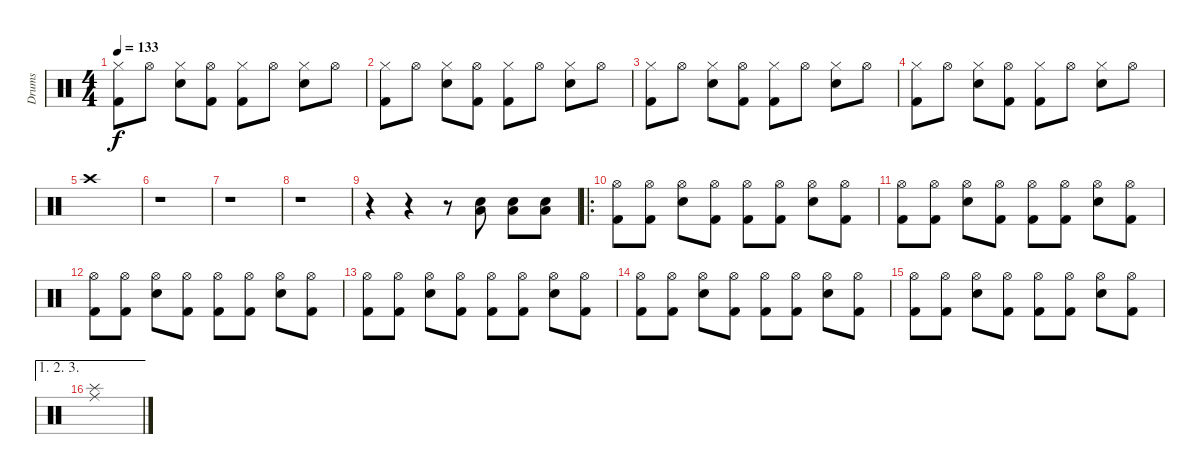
\track ("Drums" "Drums") {instrument percussion bank 4}
\staff {score}
\articulation defaults
\ts (4 4)
\tempo 133
\clef neutral
\ks c
("Hi-Hat (closed)" "Kick (hit) 2").8{dy f} "Hi-Hat (open)".8 ("Hi-Hat (closed)" "Snare (hit) 2").8 ("Hi-Hat (open)" "Kick (hit) 2").8 ("Hi-Hat (closed)" "Kick (hit) 2").8 "Hi-Hat (open)".8 ("Hi-Hat (closed)" "Snare (hit) 2").8 "Hi-Hat (open)".8 |
("Hi-Hat (closed)" "Kick (hit) 2").8 "Hi-Hat (open)".8 ("Hi-Hat (closed)" "Snare (hit) 2").8 ("Hi-Hat (open)" "Kick (hit) 2").8 ("Hi-Hat (closed)" "Kick (hit) 2").8 "Hi-Hat (open)".8 ("Hi-Hat (closed)" "Snare (hit) 2").8 "Hi-Hat (open)".8 |
("Hi-Hat (closed)" "Kick (hit) 2").8 "Hi-Hat (open)".8 ("Hi-Hat (closed)" "Snare (hit) 2").8 ("Hi-Hat (open)" "Kick (hit) 2").8 ("Hi-Hat (closed)" "Kick (hit) 2").8 "Hi-Hat (open)".8 ("Hi-Hat (closed)" "Snare (hit) 2").8 "Hi-Hat (open)".8 |
("Hi-Hat (closed)" "Kick (hit) 2").8 "Hi-Hat (open)".8 ("Hi-Hat (closed)" "Snare (hit) 2").8 ("Hi-Hat (open)" "Kick (hit) 2").8 ("Hi-Hat (closed)" "Kick (hit) 2").8 "Hi-Hat (open)".8 ("Hi-Hat (closed)" "Snare (hit) 2").8 "Hi-Hat (open)".8 |
"Crash high (hit)".1 |
r.1 |
r.1 |
r.1 |
r.4 r.4 r.8 ("Snare (hit) 2" "Low Floor Tom (hit)").8 ("Snare (hit) 2" "Low Floor Tom (hit)").8 ("Snare (hit) 2" "Low Floor Tom (hit)").8 |
\ro
("Hi-Hat (open)" "Kick (hit) 2").8 ("Hi-Hat (open)" "Kick (hit) 2").8 ("Hi-Hat (open)" "Snare (hit) 2").8 ("Hi-Hat (open)" "Kick (hit) 2").8 ("Hi-Hat (open)" "Kick (hit) 2").8 ("Hi-Hat (open)" "Kick (hit) 2").8 ("Hi-Hat (open)" "Snare (hit) 2").8 ("Hi-Hat (open)" "Kick (hit) 2").8 |
("Hi-Hat (open)" "Kick (hit) 2").8 ("Hi-Hat (open)" "Kick (hit) 2").8 ("Hi-Hat (open)" "Snare (hit) 2").8 ("Hi-Hat (open)" "Kick (hit) 2").8 ("Hi-Hat (open)" "Kick (hit) 2").8 ("Hi-Hat (open)" "Kick (hit) 2").8 ("Hi-Hat (open)" "Snare (hit) 2").8 ("Hi-Hat (open)" "Kick (hit) 2").8 |
("Hi-Hat (open)" "Kick (hit) 2").8 ("Hi-Hat (open)" "Kick (hit) 2").8 ("Hi-Hat (open)" "Snare (hit) 2").8 ("Hi-Hat (open)" "Kick (hit) 2").8 ("Hi-Hat (open)" "Kick (hit) 2").8 ("Hi-Hat (open)" "Kick (hit) 2").8 ("Hi-Hat (open)" "Snare (hit) 2").8 ("Hi-Hat (open)" "Kick (hit) 2").8 |
("Hi-Hat (open)" "Kick (hit) 2").8 ("Hi-Hat (open)" "Kick (hit) 2").8 ("Hi-Hat (open)" "Snare (hit) 2").8 ("Hi-Hat (open)" "Kick (hit) 2").8 ("Hi-Hat (open)" "Kick (hit) 2").8 ("Hi-Hat (open)" "Kick (hit) 2").8 ("Hi-Hat (open)" "Snare (hit) 2").8 ("Hi-Hat (open)" "Kick (hit) 2").8 |
("Hi-Hat (open)" "Kick (hit) 2").8 ("Hi-Hat (open)" "Kick (hit) 2").8 ("Hi-Hat (open)" "Snare (hit) 2").8 ("Hi-Hat (open)" "Kick (hit) 2").8 ("Hi-Hat (open)" "Kick (hit) 2").8 ("Hi-Hat (open)" "Kick (hit) 2").8 ("Hi-Hat (open)" "Snare (hit) 2").8 ("Hi-Hat (open)" "Kick (hit) 2").8 |
("Hi-Hat (open)" "Kick (hit) 2").8 ("Hi-Hat (open)" "Kick (hit) 2").8 ("Hi-Hat (open)" "Snare (hit) 2").8 ("Hi-Hat (open)" "Kick (hit) 2").8 ("Hi-Hat (open)" "Kick (hit) 2").8 ("Hi-Hat (open)" "Kick (hit) 2").8 ("Hi-Hat (open)" "Snare (hit) 2").8 ("Hi-Hat (open)" "Kick (hit) 2").8 |
\ae (1 2 3)
("Ride (middle)" "Splash (hit)").1
